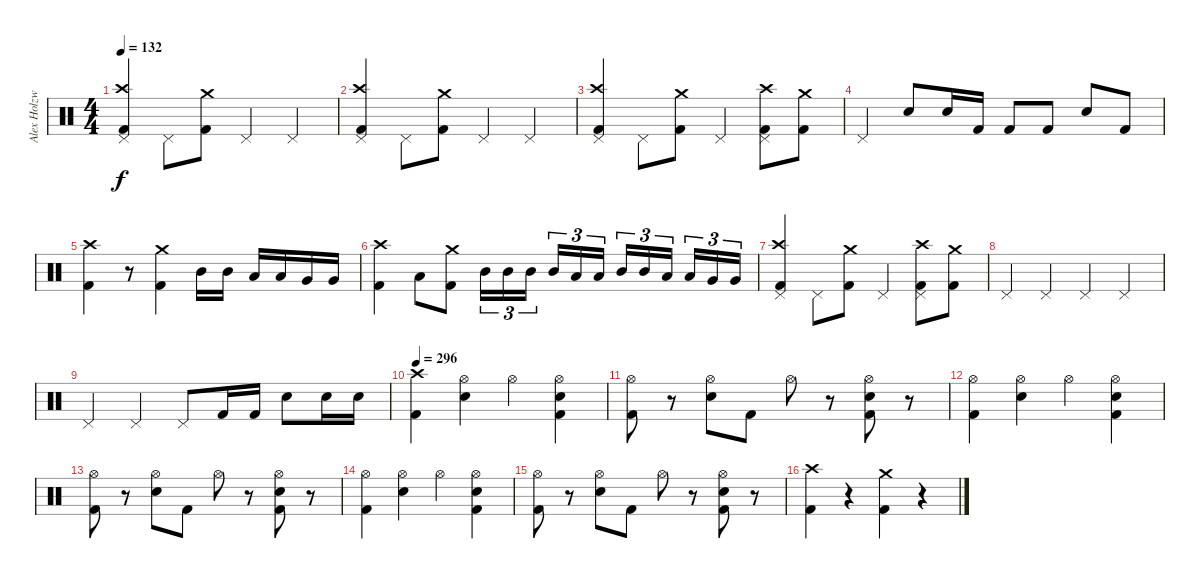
\track ("Alex Holzwarth" "Alex Holzw") {instrument percussion}
\staff {score}
\articulation defaults
\ts (4 4)
\tempo 132
\clef neutral
\ks c
("Pedal Hi-Hat (hit)" "Crash high (hit)" "Kick (hit) 2").4{dy f} "Pedal Hi-Hat (hit)".8 ("Crash medium (hit)" "Kick (hit) 2").8 "Pedal Hi-Hat (hit)".4 "Pedal Hi-Hat (hit)".4 |
("Pedal Hi-Hat (hit)" "Crash high (hit)" "Kick (hit) 2").4 "Pedal Hi-Hat (hit)".8 ("Crash medium (hit)" "Kick (hit) 2").8 "Pedal Hi-Hat (hit)".4 "Pedal Hi-Hat (hit)".4 |
("Pedal Hi-Hat (hit)" "Crash high (hit)" "Kick (hit) 2").4 "Pedal Hi-Hat (hit)".8 ("Crash medium (hit)" "Kick (hit) 2").8 "Pedal Hi-Hat (hit)".4 ("Pedal Hi-Hat (hit)" "Crash high (hit)" "Kick (hit) 2").8 ("Crash medium (hit)" "Kick (hit) 2").8 |
"Pedal Hi-Hat (hit)".4 "Snare (hit) 2".8 "Snare (hit) 2".16 "Kick (hit) 2".16 "Kick (hit) 2".8 "Kick (hit) 2".8 "Snare (hit) 2".8 "Kick (hit) 2".8 |
("Crash high (hit)" "Kick (hit) 2").4 r.8 ("Crash medium (hit)" "Kick (hit) 2").4 "Mid Tom (hit)".16 "Mid Tom (hit)".16 "Low Tom (hit)".16 "Low Tom (hit)".16 "Very Low Tom (hit)".16 "Very Low Tom (hit)".16 |
("Crash high (hit)" "Kick (hit) 2").4 "Low Tom (hit)".8 ("Crash medium (hit)" "Kick (hit) 2").8 "Mid Tom (hit)".16{tu (3 2)} "Mid Tom (hit)".16{tu (3 2)} "Mid Tom (hit)".16{tu (3 2)} "Mid Tom (hit)".16{tu (3 2)} "Low Tom (hit)".16{tu (3 2)} "Low Tom (hit)".16{tu (3 2)} "Mid Tom (hit)".16{tu (3 2)} "Mid Tom (hit)".16{tu (3 2)} "Low Tom (hit)".16{tu (3 2)} "Low Tom (hit)".16{tu (3 2)} "Very Low Tom (hit)".16{tu (3 2)} "Very Low Tom (hit)".16{tu (3 2)} |
("Pedal Hi-Hat (hit)" "Crash high (hit)" "Kick (hit) 2").4 "Pedal Hi-Hat (hit)".8 ("Crash medium (hit)" "Kick (hit) 2").8 "Pedal Hi-Hat (hit)".4 ("Pedal Hi-Hat (hit)" "Crash high (hit)" "Kick (hit) 2").8 ("Crash medium (hit)" "Kick (hit) 2").8 |
"Pedal Hi-Hat (hit)".4 "Pedal Hi-Hat (hit)".4 "Pedal Hi-Hat (hit)".4 "Pedal Hi-Hat (hit)".4 |
"Pedal Hi-Hat (hit)".4 "Pedal Hi-Hat (hit)".4 "Pedal Hi-Hat (hit)".8 "Kick (hit) 2".16 "Kick (hit) 2".16 "Snare (hit) 2".8 "Snare (hit) 2".16 "Snare (hit) 2".16 |
\tempo 296
("Crash high (hit)" "Kick (hit) 2").4 ("Hi-Hat (open)" "Snare (hit) 2").4 "Hi-Hat (open)".4 ("Hi-Hat (open)" "Snare (hit) 2" "Kick (hit) 2").4 |
("Hi-Hat (open)" "Kick (hit) 2").8 r.8 ("Hi-Hat (open)" "Snare (hit) 2").8 "Kick (hit) 2".8 "Hi-Hat (open)".8 r.8 ("Hi-Hat (open)" "Snare (hit) 2" "Kick (hit) 2").8 r.8 |
("Hi-Hat (open)" "Kick (hit) 2").4 ("Hi-Hat (open)" "Snare (hit) 2").4 "Hi-Hat (open)".4 ("Hi-Hat (open)" "Snare (hit) 2" "Kick (hit) 2").4 |
("Hi-Hat (open)" "Kick (hit) 2").8 r.8 ("Hi-Hat (open)" "Snare (hit) 2").8 "Kick (hit) 2".8 "Hi-Hat (open)".8 r.8 ("Hi-Hat (open)" "Snare (hit) 2" "Kick (hit) 2").8 r.8 |
("Hi-Hat (open)" "Kick (hit) 2").4 ("Hi-Hat (open)" "Snare (hit) 2").4 "Hi-Hat (open)".4 ("Hi-Hat (open)" "Snare (hit) 2" "Kick (hit) 2").4 |
("Hi-Hat (open)" "Kick (hit) 2").8 r.8 ("Hi-Hat (open)" "Snare (hit) 2").8 "Kick (hit) 2".8 "Hi-Hat (open)".8 r.8 ("Hi-Hat (open)" "Snare (hit) 2" "Kick (hit) 2").8 r.8 |
("Crash high (hit)" "Kick (hit) 2").4 r.4 ("Crash medium (hit)" "Kick (hit) 2").4 r.4
